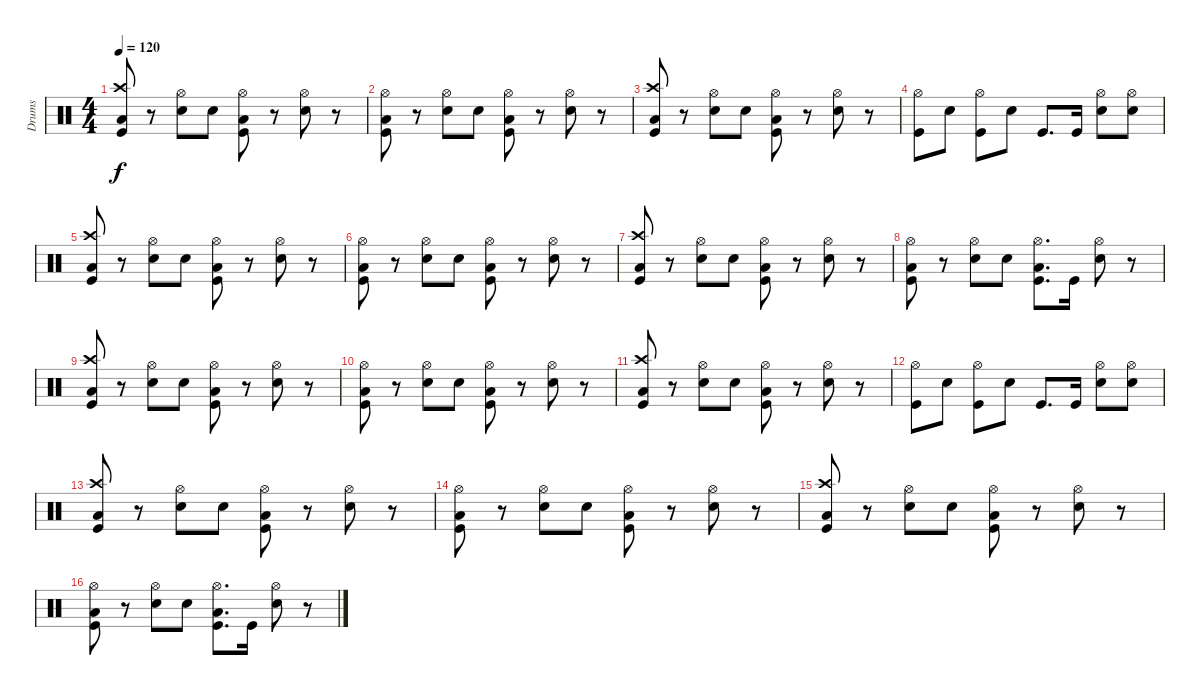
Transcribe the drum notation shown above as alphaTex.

\track ("Drums" "Drums") {instrument percussion}
\staff {score}
\articulation defaults
\ts (4 4)
\tempo 120
\clef neutral
\ks c
("Kick (hit)" "Crash high (hit)" "Low Floor Tom (hit)").8{dy f} r.8 ("Snare (hit) 2" "Hi-Hat (open)").8 "Snare (hit) 2".8 ("Kick (hit)" "Hi-Hat (open)" "Low Floor Tom (hit)").8 r.8 ("Snare (hit) 2" "Hi-Hat (open)").8 r.8 |
("Kick (hit)" "Hi-Hat (open)" "Low Floor Tom (hit)").8 r.8 ("Snare (hit) 2" "Hi-Hat (open)").8 "Snare (hit) 2".8 ("Kick (hit)" "Hi-Hat (open)" "Low Floor Tom (hit)").8 r.8 ("Snare (hit) 2" "Hi-Hat (open)").8 r.8 |
("Kick (hit)" "Crash high (hit)" "Low Floor Tom (hit)").8 r.8 ("Snare (hit) 2" "Hi-Hat (open)").8 "Snare (hit) 2".8 ("Kick (hit)" "Hi-Hat (open)" "Low Floor Tom (hit)").8 r.8 ("Snare (hit) 2" "Hi-Hat (open)").8 r.8 |
("Kick (hit)" "Hi-Hat (open)").8 "Snare (hit) 2".8 ("Kick (hit)" "Hi-Hat (open)").8 "Snare (hit) 2".8 "Kick (hit)".8{d} "Kick (hit)".16 ("Snare (hit) 2" "Hi-Hat (open)").8 ("Snare (hit) 2" "Hi-Hat (open)").8 |
("Kick (hit)" "Crash high (hit)" "Low Floor Tom (hit)").8 r.8 ("Snare (hit) 2" "Hi-Hat (open)").8 "Snare (hit) 2".8 ("Kick (hit)" "Hi-Hat (open)" "Low Floor Tom (hit)").8 r.8 ("Snare (hit) 2" "Hi-Hat (open)").8 r.8 |
("Kick (hit)" "Hi-Hat (open)" "Low Floor Tom (hit)").8 r.8 ("Snare (hit) 2" "Hi-Hat (open)").8 "Snare (hit) 2".8 ("Kick (hit)" "Hi-Hat (open)" "Low Floor Tom (hit)").8 r.8 ("Snare (hit) 2" "Hi-Hat (open)").8 r.8 |
("Kick (hit)" "Crash high (hit)" "Low Floor Tom (hit)").8 r.8 ("Snare (hit) 2" "Hi-Hat (open)").8 "Snare (hit) 2".8 ("Kick (hit)" "Hi-Hat (open)" "Low Floor Tom (hit)").8 r.8 ("Snare (hit) 2" "Hi-Hat (open)").8 r.8 |
("Kick (hit)" "Hi-Hat (open)" "Low Floor Tom (hit)").8 r.8 ("Snare (hit) 2" "Hi-Hat (open)").8 "Snare (hit) 2".8 ("Kick (hit)" "Hi-Hat (open)" "Low Floor Tom (hit)").8{d} "Kick (hit)".16 ("Snare (hit) 2" "Hi-Hat (open)").8 r.8 |
("Kick (hit)" "Crash high (hit)" "Low Floor Tom (hit)").8 r.8 ("Snare (hit) 2" "Hi-Hat (open)").8 "Snare (hit) 2".8 ("Kick (hit)" "Hi-Hat (open)" "Low Floor Tom (hit)").8 r.8 ("Snare (hit) 2" "Hi-Hat (open)").8 r.8 |
("Kick (hit)" "Hi-Hat (open)" "Low Floor Tom (hit)").8 r.8 ("Snare (hit) 2" "Hi-Hat (open)").8 "Snare (hit) 2".8 ("Kick (hit)" "Hi-Hat (open)" "Low Floor Tom (hit)").8 r.8 ("Snare (hit) 2" "Hi-Hat (open)").8 r.8 |
("Kick (hit)" "Crash high (hit)" "Low Floor Tom (hit)").8 r.8 ("Snare (hit) 2" "Hi-Hat (open)").8 "Snare (hit) 2".8 ("Kick (hit)" "Hi-Hat (open)" "Low Floor Tom (hit)").8 r.8 ("Snare (hit) 2" "Hi-Hat (open)").8 r.8 |
("Kick (hit)" "Hi-Hat (open)").8 "Snare (hit) 2".8 ("Kick (hit)" "Hi-Hat (open)").8 "Snare (hit) 2".8 "Kick (hit)".8{d} "Kick (hit)".16 ("Snare (hit) 2" "Hi-Hat (open)").8 ("Snare (hit) 2" "Hi-Hat (open)").8 |
("Kick (hit)" "Crash high (hit)" "Low Floor Tom (hit)").8 r.8 ("Snare (hit) 2" "Hi-Hat (open)").8 "Snare (hit) 2".8 ("Kick (hit)" "Hi-Hat (open)" "Low Floor Tom (hit)").8 r.8 ("Snare (hit) 2" "Hi-Hat (open)").8 r.8 |
("Kick (hit)" "Hi-Hat (open)" "Low Floor Tom (hit)").8 r.8 ("Snare (hit) 2" "Hi-Hat (open)").8 "Snare (hit) 2".8 ("Kick (hit)" "Hi-Hat (open)" "Low Floor Tom (hit)").8 r.8 ("Snare (hit) 2" "Hi-Hat (open)").8 r.8 |
("Kick (hit)" "Crash high (hit)" "Low Floor Tom (hit)").8 r.8 ("Snare (hit) 2" "Hi-Hat (open)").8 "Snare (hit) 2".8 ("Kick (hit)" "Hi-Hat (open)" "Low Floor Tom (hit)").8 r.8 ("Snare (hit) 2" "Hi-Hat (open)").8 r.8 |
("Kick (hit)" "Hi-Hat (open)" "Low Floor Tom (hit)").8 r.8 ("Snare (hit) 2" "Hi-Hat (open)").8 "Snare (hit) 2".8 ("Kick (hit)" "Hi-Hat (open)" "Low Floor Tom (hit)").8{d} "Kick (hit)".16 ("Snare (hit) 2" "Hi-Hat (open)").8 r.8
